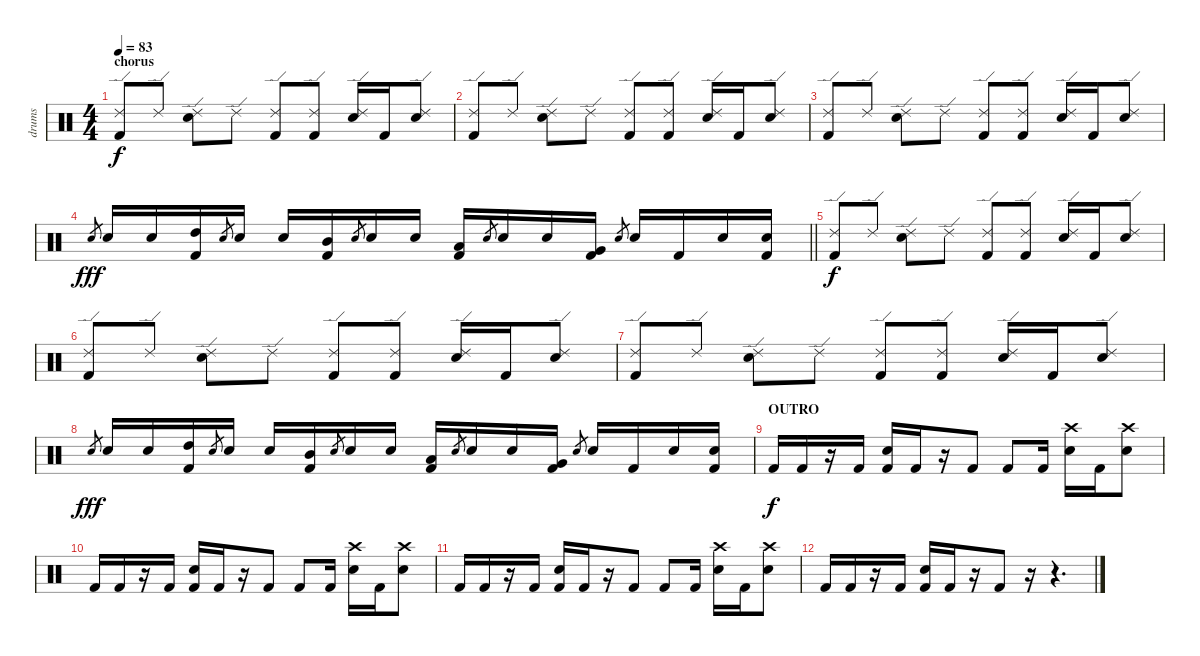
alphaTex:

\track ("drums" "drums") {instrument percussion}
\staff {score}
\articulation defaults
\ts (4 4)
\section ("" "chorus")
\tempo 83
\clef neutral
\ks c
("Ride (edge) 2" "Kick (hit) 2").8{dy f} "Ride (edge) 2".8 ("Ride (edge) 2" "Snare (hit) 2").8 "Ride (edge) 2".8 ("Ride (edge) 2" "Kick (hit) 2").8 ("Ride (edge) 2" "Kick (hit) 2").8 ("Ride (edge) 2" "Snare (hit) 2").16 "Kick (hit) 2".16 ("Ride (edge) 2" "Snare (hit) 2").8 |
("Ride (edge) 2" "Kick (hit) 2").8 "Ride (edge) 2".8 ("Ride (edge) 2" "Snare (hit) 2").8 "Ride (edge) 2".8 ("Ride (edge) 2" "Kick (hit) 2").8 ("Ride (edge) 2" "Kick (hit) 2").8 ("Ride (edge) 2" "Snare (hit) 2").16 "Kick (hit) 2".16 ("Ride (edge) 2" "Snare (hit) 2").8 |
("Ride (edge) 2" "Kick (hit) 2").8 "Ride (edge) 2".8 ("Ride (edge) 2" "Snare (hit) 2").8 "Ride (edge) 2".8 ("Ride (edge) 2" "Kick (hit) 2").8 ("Ride (edge) 2" "Kick (hit) 2").8 ("Ride (edge) 2" "Snare (hit) 2").16 "Kick (hit) 2".16 ("Ride (edge) 2" "Snare (hit) 2").8 |
\barLineRight lightlight "Snare (hit) 2".8{gr dy fff} "Snare (hit) 2".16 "Snare (hit) 2".16
("High Tom (hit)" "Kick (hit) 2").16 "Snare (hit) 2".8{gr} "Snare (hit) 2".16 "Snare (hit) 2".16 ("Mid Tom (hit)" "Kick (hit) 2").16 "Snare (hit) 2".8{gr} "Snare (hit) 2".16 "Snare (hit) 2".16 ("Low Tom (hit)" "Kick (hit) 2").16 "Snare (hit) 2".8{gr} "Snare (hit) 2".16 "Snare (hit) 2".16 ("Very Low Tom (hit)" "Kick (hit) 2").16 "Snare (hit) 2".8{gr} "Snare (hit) 2".16 "Kick (hit) 2".16 "Snare (hit) 2".16 ("Snare (hit) 2" "Kick (hit) 2").16 |
("Ride (edge) 2" "Kick (hit) 2").8{dy f} "Ride (edge) 2".8 ("Ride (edge) 2" "Snare (hit) 2").8 "Ride (edge) 2".8 ("Ride (edge) 2" "Kick (hit) 2").8 ("Ride (edge) 2" "Kick (hit) 2").8 ("Ride (edge) 2" "Snare (hit) 2").16 "Kick (hit) 2".16 ("Ride (edge) 2" "Snare (hit) 2").8 |
("Ride (edge) 2" "Kick (hit) 2").8 "Ride (edge) 2".8 ("Ride (edge) 2" "Snare (hit) 2").8 "Ride (edge) 2".8 ("Ride (edge) 2" "Kick (hit) 2").8 ("Ride (edge) 2" "Kick (hit) 2").8 ("Ride (edge) 2" "Snare (hit) 2").16 "Kick (hit) 2".16 ("Ride (edge) 2" "Snare (hit) 2").8 |
("Ride (edge) 2" "Kick (hit) 2").8 "Ride (edge) 2".8 ("Ride (edge) 2" "Snare (hit) 2").8 "Ride (edge) 2".8 ("Ride (edge) 2" "Kick (hit) 2").8 ("Ride (edge) 2" "Kick (hit) 2").8 ("Ride (edge) 2" "Snare (hit) 2").16 "Kick (hit) 2".16 ("Ride (edge) 2" "Snare (hit) 2").8 |
"Snare (hit) 2".8{gr dy fff} "Snare (hit) 2".16 "Snare (hit) 2".16 ("High Tom (hit)" "Kick (hit) 2").16 "Snare (hit) 2".8{gr} "Snare (hit) 2".16 "Snare (hit) 2".16 ("Mid Tom (hit)" "Kick (hit) 2").16 "Snare (hit) 2".8{gr} "Snare (hit) 2".16 "Snare (hit) 2".16 ("Low Tom (hit)" "Kick (hit) 2").16 "Snare (hit) 2".8{gr} "Snare (hit) 2".16 "Snare (hit) 2".16 ("Very Low Tom (hit)" "Kick (hit) 2").16 "Snare (hit) 2".8{gr} "Snare (hit) 2".16 "Kick (hit) 2".16 "Snare (hit) 2".16 ("Snare (hit) 2" "Kick (hit) 2").16 |
\section ("" "OUTRO")
"Kick (hit) 2".16{dy f} "Kick (hit) 2".16 r.16 "Kick (hit) 2".16 ("Snare (hit) 2" "Kick (hit) 2").16 "Kick (hit) 2".16 r.16 "Kick (hit) 2".8 "Kick (hit) 2".8 "Kick (hit) 2".16 ("Crash high (hit)" "Snare (hit) 2").16 "Kick (hit) 2".16 ("Crash high (hit)" "Snare (hit) 2").8 |
"Kick (hit) 2".16 "Kick (hit) 2".16 r.16 "Kick (hit) 2".16 ("Snare (hit) 2" "Kick (hit) 2").16 "Kick (hit) 2".16 r.16 "Kick (hit) 2".8 "Kick (hit) 2".8 "Kick (hit) 2".16 ("Crash high (hit)" "Snare (hit) 2").16 "Kick (hit) 2".16 ("Crash high (hit)" "Snare (hit) 2").8 |
"Kick (hit) 2".16 "Kick (hit) 2".16 r.16 "Kick (hit) 2".16 ("Snare (hit) 2" "Kick (hit) 2").16 "Kick (hit) 2".16 r.16 "Kick (hit) 2".8 "Kick (hit) 2".8 "Kick (hit) 2".16 ("Crash high (hit)" "Snare (hit) 2").16 "Kick (hit) 2".16 ("Crash high (hit)" "Snare (hit) 2").8 |
"Kick (hit) 2".16 "Kick (hit) 2".16 r.16 "Kick (hit) 2".16 ("Snare (hit) 2" "Kick (hit) 2").16 "Kick (hit) 2".16 r.16 "Kick (hit) 2".8 r.16 r.4{d}
